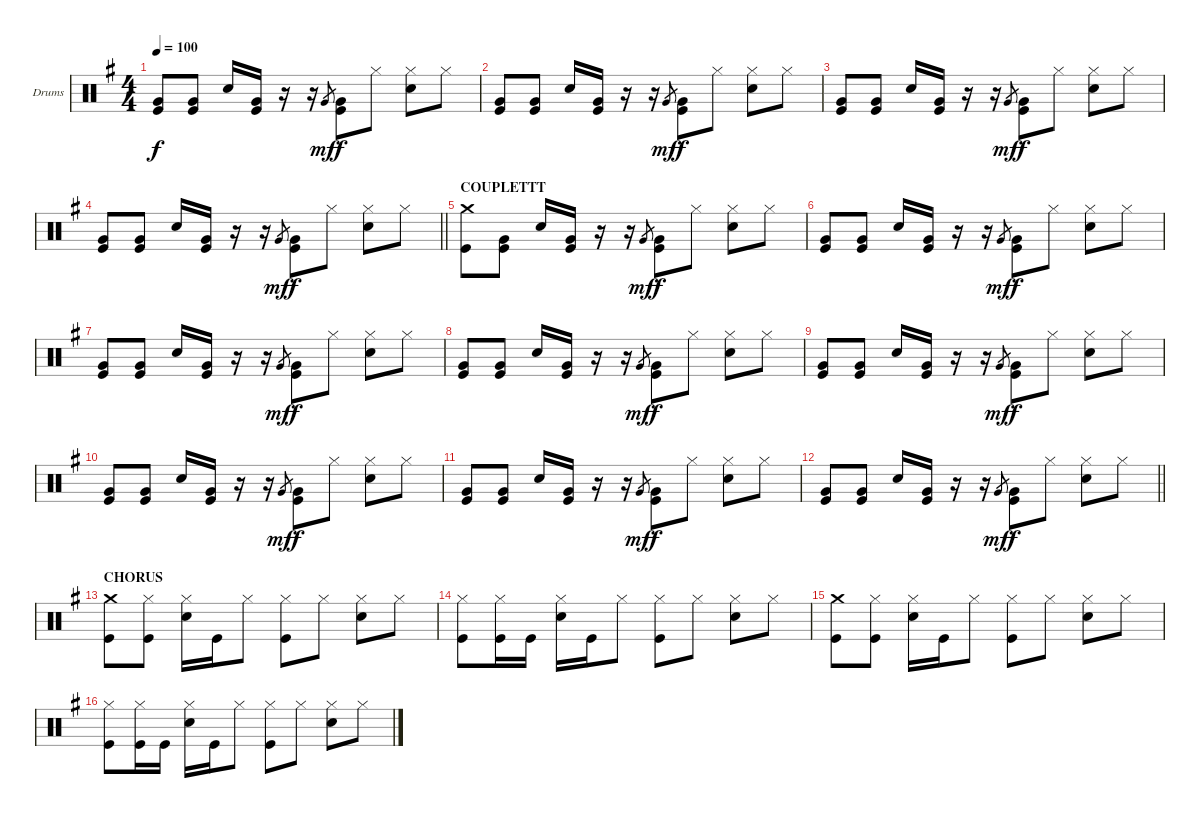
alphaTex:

\bracketExtendMode groupsimilarinstruments
\firstSystemTrackNameOrientation horizontal
\otherSystemsTrackNameOrientation horizontal
\track ("Drumkit" "Drums") {instrument percussion}
\staff {score}
\articulation defaults
\ts (4 4)
\tempo 100
\clef neutral
\ks eminor
("Very Low Tom (hit)" "Kick (hit)").8{dy f} ("Very Low Tom (hit)" "Kick (hit)").8 "Snare (hit) 2".16 ("Very Low Tom (hit)" "Kick (hit)").16 r.16 r.16 "Very Low Tom (hit)".8{gr dy mf} ("Very Low Tom (hit)" "Kick (hit)").8{dy f} "Hi-Hat (closed)".8 ("Hi-Hat (closed)" "Snare (hit) 2").8 "Hi-Hat (closed)".8 |
("Very Low Tom (hit)" "Kick (hit)").8 ("Very Low Tom (hit)" "Kick (hit)").8 "Snare (hit) 2".16 ("Very Low Tom (hit)" "Kick (hit)").16 r.16 r.16 "Very Low Tom (hit)".8{gr dy mf} ("Very Low Tom (hit)" "Kick (hit)").8{dy f} "Hi-Hat (closed)".8 ("Hi-Hat (closed)" "Snare (hit) 2").8 "Hi-Hat (closed)".8 |
("Very Low Tom (hit)" "Kick (hit)").8 ("Very Low Tom (hit)" "Kick (hit)").8 "Snare (hit) 2".16 ("Very Low Tom (hit)" "Kick (hit)").16 r.16 r.16 "Very Low Tom (hit)".8{gr dy mf} ("Very Low Tom (hit)" "Kick (hit)").8{dy f} "Hi-Hat (closed)".8 ("Hi-Hat (closed)" "Snare (hit) 2").8 "Hi-Hat (closed)".8 |
\barLineRight lightlight
("Very Low Tom (hit)" "Kick (hit)").8 ("Very Low Tom (hit)" "Kick (hit)").8 "Snare (hit) 2".16 ("Very Low Tom (hit)" "Kick (hit)").16 r.16 r.16 "Very Low Tom (hit)".8{gr dy mf} ("Very Low Tom (hit)" "Kick (hit)").8{dy f} "Hi-Hat (closed)".8 ("Hi-Hat (closed)" "Snare (hit) 2").8 "Hi-Hat (closed)".8 |
\section ("" "COUPLETTT")
("Crash medium (hit)" "Kick (hit)").8 ("Very Low Tom (hit)" "Kick (hit)").8 "Snare (hit) 2".16 ("Very Low Tom (hit)" "Kick (hit)").16 r.16 r.16 "Very Low Tom (hit)".8{gr dy mf} ("Very Low Tom (hit)" "Kick (hit)").8{dy f} "Hi-Hat (closed)".8 ("Hi-Hat (closed)" "Snare (hit) 2").8 "Hi-Hat (closed)".8 |
("Very Low Tom (hit)" "Kick (hit)").8 ("Very Low Tom (hit)" "Kick (hit)").8 "Snare (hit) 2".16 ("Very Low Tom (hit)" "Kick (hit)").16 r.16 r.16 "Very Low Tom (hit)".8{gr dy mf} ("Very Low Tom (hit)" "Kick (hit)").8{dy f} "Hi-Hat (closed)".8 ("Hi-Hat (closed)" "Snare (hit) 2").8 "Hi-Hat (closed)".8 |
("Very Low Tom (hit)" "Kick (hit)").8 ("Very Low Tom (hit)" "Kick (hit)").8 "Snare (hit) 2".16 ("Very Low Tom (hit)" "Kick (hit)").16 r.16 r.16 "Very Low Tom (hit)".8{gr dy mf} ("Very Low Tom (hit)" "Kick (hit)").8{dy f} "Hi-Hat (closed)".8 ("Hi-Hat (closed)" "Snare (hit) 2").8 "Hi-Hat (closed)".8 |
("Very Low Tom (hit)" "Kick (hit)").8 ("Very Low Tom (hit)" "Kick (hit)").8 "Snare (hit) 2".16 ("Very Low Tom (hit)" "Kick (hit)").16 r.16 r.16 "Very Low Tom (hit)".8{gr dy mf} ("Very Low Tom (hit)" "Kick (hit)").8{dy f} "Hi-Hat (closed)".8 ("Hi-Hat (closed)" "Snare (hit) 2").8 "Hi-Hat (closed)".8 |
("Very Low Tom (hit)" "Kick (hit)").8 ("Very Low Tom (hit)" "Kick (hit)").8 "Snare (hit) 2".16 ("Very Low Tom (hit)" "Kick (hit)").16 r.16 r.16 "Very Low Tom (hit)".8{gr dy mf} ("Very Low Tom (hit)" "Kick (hit)").8{dy f} "Hi-Hat (closed)".8 ("Hi-Hat (closed)" "Snare (hit) 2").8 "Hi-Hat (closed)".8 |
("Very Low Tom (hit)" "Kick (hit)").8 ("Very Low Tom (hit)" "Kick (hit)").8 "Snare (hit) 2".16 ("Very Low Tom (hit)" "Kick (hit)").16 r.16 r.16 "Very Low Tom (hit)".8{gr dy mf} ("Very Low Tom (hit)" "Kick (hit)").8{dy f} "Hi-Hat (closed)".8 ("Hi-Hat (closed)" "Snare (hit) 2").8 "Hi-Hat (closed)".8 |
("Very Low Tom (hit)" "Kick (hit)").8 ("Very Low Tom (hit)" "Kick (hit)").8 "Snare (hit) 2".16 ("Very Low Tom (hit)" "Kick (hit)").16 r.16 r.16 "Very Low Tom (hit)".8{gr dy mf} ("Very Low Tom (hit)" "Kick (hit)").8{dy f} "Hi-Hat (closed)".8 ("Hi-Hat (closed)" "Snare (hit) 2").8 "Hi-Hat (closed)".8 |
\barLineRight lightlight
("Very Low Tom (hit)" "Kick (hit)").8 ("Very Low Tom (hit)" "Kick (hit)").8 "Snare (hit) 2".16 ("Very Low Tom (hit)" "Kick (hit)").16 r.16 r.16 "Very Low Tom (hit)".8{gr dy mf} ("Very Low Tom (hit)" "Kick (hit)").8{dy f} "Hi-Hat (closed)".8 ("Hi-Hat (closed)" "Snare (hit) 2").8 "Hi-Hat (closed)".8 |
\section ("" "CHORUS")
("Crash medium (hit)" "Kick (hit)").8 ("Hi-Hat (closed)" "Kick (hit)").8 ("Hi-Hat (closed)" "Snare (hit) 2").16 "Kick (hit)".16 "Hi-Hat (closed)".8 ("Hi-Hat (closed)" "Kick (hit)").8 "Hi-Hat (closed)".8 ("Hi-Hat (closed)" "Snare (hit) 2").8 "Hi-Hat (closed)".8 |
("Hi-Hat (closed)" "Kick (hit)").8 ("Hi-Hat (closed)" "Kick (hit)").16 "Kick (hit)".16 ("Hi-Hat (closed)" "Snare (hit) 2").16 "Kick (hit)".16 "Hi-Hat (closed)".8 ("Hi-Hat (closed)" "Kick (hit)").8 "Hi-Hat (closed)".8 ("Hi-Hat (closed)" "Snare (hit) 2").8 "Hi-Hat (closed)".8 |
("Crash medium (hit)" "Kick (hit)").8 ("Hi-Hat (closed)" "Kick (hit)").8 ("Hi-Hat (closed)" "Snare (hit) 2").16 "Kick (hit)".16 "Hi-Hat (closed)".8 ("Hi-Hat (closed)" "Kick (hit)").8 "Hi-Hat (closed)".8 ("Hi-Hat (closed)" "Snare (hit) 2").8 "Hi-Hat (closed)".8 |
("Hi-Hat (closed)" "Kick (hit)").8 ("Hi-Hat (closed)" "Kick (hit)").16 "Kick (hit)".16 ("Hi-Hat (closed)" "Snare (hit) 2").16 "Kick (hit)".16 "Hi-Hat (closed)".8 ("Hi-Hat (closed)" "Kick (hit)").8 "Hi-Hat (closed)".8 ("Hi-Hat (closed)" "Snare (hit) 2").8 "Hi-Hat (closed)".8
